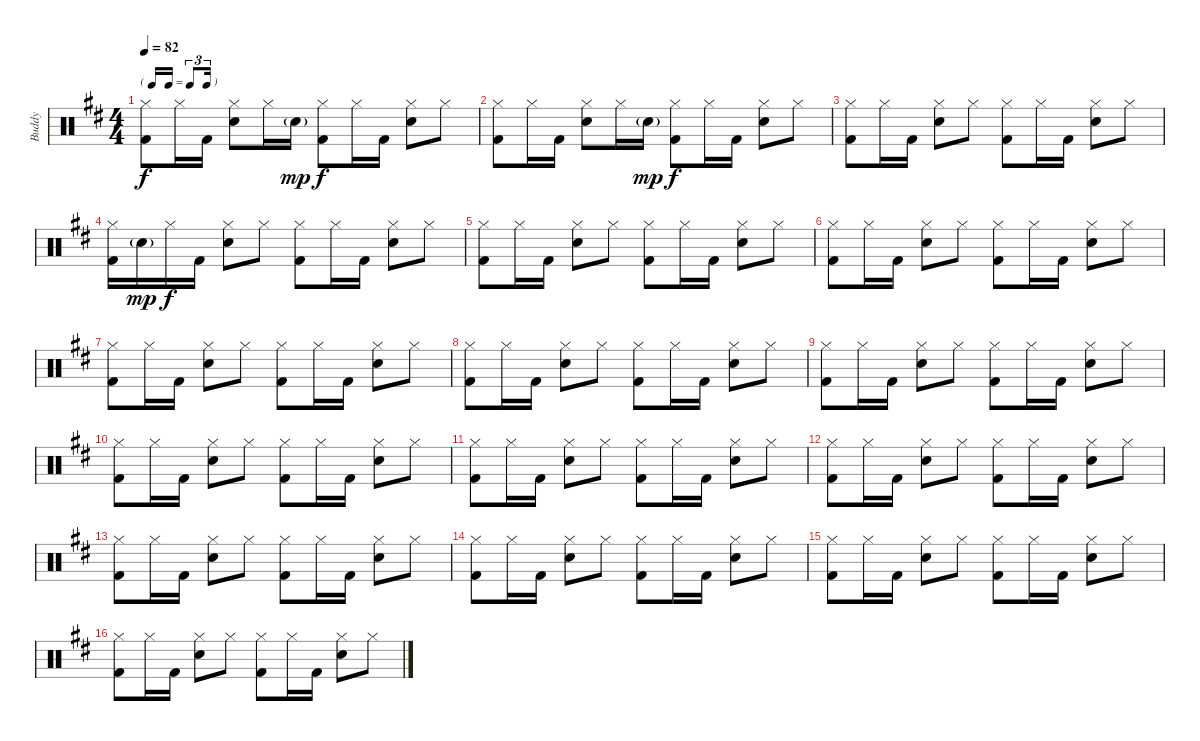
\track ("Buddy" "Buddy") {instrument percussion}
\staff {score}
\articulation defaults
\ts (4 4)
\tf triplet16th
\tempo 82
\clef neutral
\ks d
("Hi-Hat (closed)" "Kick (hit) 2").8{dy f} "Hi-Hat (closed)".16 "Kick (hit) 2".16 ("Hi-Hat (closed)" "Snare (hit) 2").8 "Hi-Hat (closed)".16 "Snare (hit) 2"{g}.16{dy mp} ("Hi-Hat (closed)" "Kick (hit) 2").8{dy f} "Hi-Hat (closed)".16 "Kick (hit) 2".16 ("Hi-Hat (closed)" "Snare (hit) 2").8 "Hi-Hat (closed)".8 |
("Hi-Hat (closed)" "Kick (hit) 2").8 "Hi-Hat (closed)".16 "Kick (hit) 2".16 ("Hi-Hat (closed)" "Snare (hit) 2").8 "Hi-Hat (closed)".16 "Snare (hit) 2"{g}.16{dy mp} ("Hi-Hat (closed)" "Kick (hit) 2").8{dy f} "Hi-Hat (closed)".16 "Kick (hit) 2".16 ("Hi-Hat (closed)" "Snare (hit) 2").8 "Hi-Hat (closed)".8 |
("Hi-Hat (closed)" "Kick (hit) 2").8 "Hi-Hat (closed)".16 "Kick (hit) 2".16 ("Hi-Hat (closed)" "Snare (hit) 2").8 "Hi-Hat (closed)".8 ("Hi-Hat (closed)" "Kick (hit) 2").8 "Hi-Hat (closed)".16 "Kick (hit) 2".16 ("Hi-Hat (closed)" "Snare (hit) 2").8 "Hi-Hat (closed)".8 |
("Hi-Hat (closed)" "Kick (hit) 2").16 "Snare (hit) 2"{g}.16{dy mp} "Hi-Hat (closed)".16{dy f} "Kick (hit) 2".16 ("Hi-Hat (closed)" "Snare (hit) 2").8 "Hi-Hat (closed)".8 ("Hi-Hat (closed)" "Kick (hit) 2").8 "Hi-Hat (closed)".16 "Kick (hit) 2".16 ("Hi-Hat (closed)" "Snare (hit) 2").8 "Hi-Hat (closed)".8 |
("Hi-Hat (closed)" "Kick (hit) 2").8 "Hi-Hat (closed)".16 "Kick (hit) 2".16 ("Hi-Hat (closed)" "Snare (hit) 2").8 "Hi-Hat (closed)".8 ("Hi-Hat (closed)" "Kick (hit) 2").8 "Hi-Hat (closed)".16 "Kick (hit) 2".16 ("Hi-Hat (closed)" "Snare (hit) 2").8 "Hi-Hat (closed)".8 |
("Hi-Hat (closed)" "Kick (hit) 2").8 "Hi-Hat (closed)".16 "Kick (hit) 2".16 ("Hi-Hat (closed)" "Snare (hit) 2").8 "Hi-Hat (closed)".8 ("Hi-Hat (closed)" "Kick (hit) 2").8 "Hi-Hat (closed)".16 "Kick (hit) 2".16 ("Hi-Hat (closed)" "Snare (hit) 2").8 "Hi-Hat (closed)".8 |
("Hi-Hat (closed)" "Kick (hit) 2").8 "Hi-Hat (closed)".16 "Kick (hit) 2".16 ("Hi-Hat (closed)" "Snare (hit) 2").8 "Hi-Hat (closed)".8 ("Hi-Hat (closed)" "Kick (hit) 2").8 "Hi-Hat (closed)".16 "Kick (hit) 2".16 ("Hi-Hat (closed)" "Snare (hit) 2").8 "Hi-Hat (closed)".8 |
("Hi-Hat (closed)" "Kick (hit) 2").8 "Hi-Hat (closed)".16 "Kick (hit) 2".16 ("Hi-Hat (closed)" "Snare (hit) 2").8 "Hi-Hat (closed)".8 ("Hi-Hat (closed)" "Kick (hit) 2").8 "Hi-Hat (closed)".16 "Kick (hit) 2".16 ("Hi-Hat (closed)" "Snare (hit) 2").8 "Hi-Hat (closed)".8 |
("Hi-Hat (closed)" "Kick (hit) 2").8 "Hi-Hat (closed)".16 "Kick (hit) 2".16 ("Hi-Hat (closed)" "Snare (hit) 2").8 "Hi-Hat (closed)".8 ("Hi-Hat (closed)" "Kick (hit) 2").8 "Hi-Hat (closed)".16 "Kick (hit) 2".16 ("Hi-Hat (closed)" "Snare (hit) 2").8 "Hi-Hat (closed)".8 |
("Hi-Hat (closed)" "Kick (hit) 2").8 "Hi-Hat (closed)".16 "Kick (hit) 2".16 ("Hi-Hat (closed)" "Snare (hit) 2").8 "Hi-Hat (closed)".8 ("Hi-Hat (closed)" "Kick (hit) 2").8 "Hi-Hat (closed)".16 "Kick (hit) 2".16 ("Hi-Hat (closed)" "Snare (hit) 2").8 "Hi-Hat (closed)".8 |
("Hi-Hat (closed)" "Kick (hit) 2").8 "Hi-Hat (closed)".16 "Kick (hit) 2".16 ("Hi-Hat (closed)" "Snare (hit) 2").8 "Hi-Hat (closed)".8 ("Hi-Hat (closed)" "Kick (hit) 2").8 "Hi-Hat (closed)".16 "Kick (hit) 2".16 ("Hi-Hat (closed)" "Snare (hit) 2").8 "Hi-Hat (closed)".8 |
("Hi-Hat (closed)" "Kick (hit) 2").8 "Hi-Hat (closed)".16 "Kick (hit) 2".16 ("Hi-Hat (closed)" "Snare (hit) 2").8 "Hi-Hat (closed)".8 ("Hi-Hat (closed)" "Kick (hit) 2").8 "Hi-Hat (closed)".16 "Kick (hit) 2".16 ("Hi-Hat (closed)" "Snare (hit) 2").8 "Hi-Hat (closed)".8 |
("Hi-Hat (closed)" "Kick (hit) 2").8 "Hi-Hat (closed)".16 "Kick (hit) 2".16 ("Hi-Hat (closed)" "Snare (hit) 2").8 "Hi-Hat (closed)".8 ("Hi-Hat (closed)" "Kick (hit) 2").8 "Hi-Hat (closed)".16 "Kick (hit) 2".16 ("Hi-Hat (closed)" "Snare (hit) 2").8 "Hi-Hat (closed)".8 |
("Hi-Hat (closed)" "Kick (hit) 2").8 "Hi-Hat (closed)".16 "Kick (hit) 2".16 ("Hi-Hat (closed)" "Snare (hit) 2").8 "Hi-Hat (closed)".8 ("Hi-Hat (closed)" "Kick (hit) 2").8 "Hi-Hat (closed)".16 "Kick (hit) 2".16 ("Hi-Hat (closed)" "Snare (hit) 2").8 "Hi-Hat (closed)".8 |
("Hi-Hat (closed)" "Kick (hit) 2").8 "Hi-Hat (closed)".16 "Kick (hit) 2".16 ("Hi-Hat (closed)" "Snare (hit) 2").8 "Hi-Hat (closed)".8 ("Hi-Hat (closed)" "Kick (hit) 2").8 "Hi-Hat (closed)".16 "Kick (hit) 2".16 ("Hi-Hat (closed)" "Snare (hit) 2").8 "Hi-Hat (closed)".8 |
("Hi-Hat (closed)" "Kick (hit) 2").8 "Hi-Hat (closed)".16 "Kick (hit) 2".16 ("Hi-Hat (closed)" "Snare (hit) 2").8 "Hi-Hat (closed)".8 ("Hi-Hat (closed)" "Kick (hit) 2").8 "Hi-Hat (closed)".16 "Kick (hit) 2".16 ("Hi-Hat (closed)" "Snare (hit) 2").8 "Hi-Hat (closed)".8
